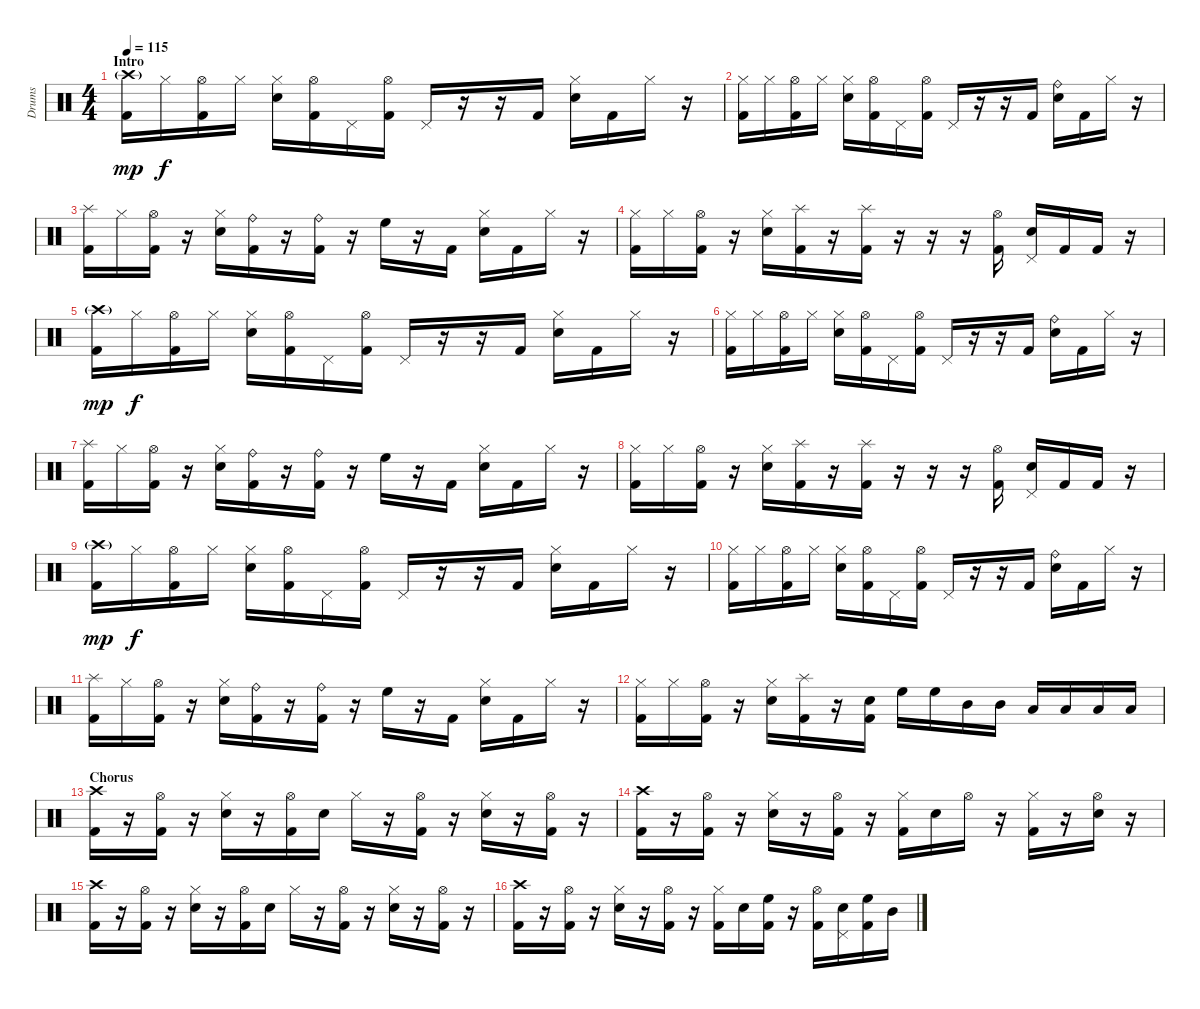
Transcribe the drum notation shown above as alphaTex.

\track ("Drums" "Drums") {instrument percussion}
\staff {score}
\articulation defaults
\ts (4 4)
\section ("" "Intro")
\tempo 115
\clef neutral
\ks c
("Crash high (hit)"{g} "Kick (hit) 2").16{dy mp} "Hi-Hat (closed)".16{dy f} ("Hi-Hat (open)" "Kick (hit) 2").16 "Hi-Hat (closed)".16 ("Hi-Hat (closed)" "Electric Snare (hit)").16 ("Hi-Hat (open)" "Kick (hit) 2").16 "Pedal Hi-Hat (hit)".16 ("Hi-Hat (open)" "Kick (hit) 2").16 "Pedal Hi-Hat (hit)".16 r.16 r.16 "Kick (hit) 2".16 ("Hi-Hat (closed)" "Electric Snare (hit)").16 "Kick (hit) 2".16 "Hi-Hat (closed)".16 r.16 |
("Hi-Hat (closed)" "Kick (hit) 2").16 "Hi-Hat (closed)".16 ("Hi-Hat (open)" "Kick (hit) 2").16 "Hi-Hat (closed)".16 ("Hi-Hat (closed)" "Electric Snare (hit)").16 ("Hi-Hat (open)" "Kick (hit) 2").16 "Pedal Hi-Hat (hit)".16 ("Hi-Hat (open)" "Kick (hit) 2").16 "Pedal Hi-Hat (hit)".16 r.16 r.16 "Kick (hit) 2".16 ("Ride (bell)" "Electric Snare (hit)").16 "Kick (hit) 2".16 "Hi-Hat (closed)".16 r.16 |
("Splash (hit)" "Kick (hit) 2").16 "Hi-Hat (closed)".16 ("Hi-Hat (open)" "Kick (hit) 2").16 r.16 ("Hi-Hat (closed)" "Electric Snare (hit)").16 ("Ride (bell)" "Kick (hit) 2").16 r.16 ("Ride (bell)" "Kick (hit) 2").16 r.16 "High Floor Tom (hit)".16 r.16 "Kick (hit) 2".16 ("Hi-Hat (closed)" "Electric Snare (hit)").16 "Kick (hit) 2".16 "Hi-Hat (closed)".16 r.16 |
("Hi-Hat (closed)" "Kick (hit) 2").16 "Hi-Hat (closed)".16 ("Hi-Hat (open)" "Kick (hit) 2").16 r.16 ("Hi-Hat (closed)" "Electric Snare (hit)").16 ("Splash (hit)" "Kick (hit) 2").16 r.16 ("Splash (hit)" "Kick (hit) 2").16 r.16 r.16 r.16 ("Hi-Hat (open)" "Kick (hit) 2").16 ("Pedal Hi-Hat (hit)" "Electric Snare (hit)").16 "Kick (hit) 2".16 "Kick (hit) 2".16 r.16 |
("Crash high (hit)"{g} "Kick (hit) 2").16{dy mp} "Hi-Hat (closed)".16{dy f} ("Hi-Hat (open)" "Kick (hit) 2").16 "Hi-Hat (closed)".16 ("Hi-Hat (closed)" "Electric Snare (hit)").16 ("Hi-Hat (open)" "Kick (hit) 2").16 "Pedal Hi-Hat (hit)".16 ("Hi-Hat (open)" "Kick (hit) 2").16 "Pedal Hi-Hat (hit)".16 r.16 r.16 "Kick (hit) 2".16 ("Hi-Hat (closed)" "Electric Snare (hit)").16 "Kick (hit) 2".16 "Hi-Hat (closed)".16 r.16 |
("Hi-Hat (closed)" "Kick (hit) 2").16 "Hi-Hat (closed)".16 ("Hi-Hat (open)" "Kick (hit) 2").16 "Hi-Hat (closed)".16 ("Hi-Hat (closed)" "Electric Snare (hit)").16 ("Hi-Hat (open)" "Kick (hit) 2").16 "Pedal Hi-Hat (hit)".16 ("Hi-Hat (open)" "Kick (hit) 2").16 "Pedal Hi-Hat (hit)".16 r.16 r.16 "Kick (hit) 2".16 ("Ride (bell)" "Electric Snare (hit)").16 "Kick (hit) 2".16 "Hi-Hat (closed)".16 r.16 |
("Splash (hit)" "Kick (hit) 2").16 "Hi-Hat (closed)".16 ("Hi-Hat (open)" "Kick (hit) 2").16 r.16 ("Hi-Hat (closed)" "Electric Snare (hit)").16 ("Ride (bell)" "Kick (hit) 2").16 r.16 ("Ride (bell)" "Kick (hit) 2").16 r.16 "High Floor Tom (hit)".16 r.16 "Kick (hit) 2".16 ("Hi-Hat (closed)" "Electric Snare (hit)").16 "Kick (hit) 2".16 "Hi-Hat (closed)".16 r.16 |
("Hi-Hat (closed)" "Kick (hit) 2").16 "Hi-Hat (closed)".16 ("Hi-Hat (open)" "Kick (hit) 2").16 r.16 ("Hi-Hat (closed)" "Electric Snare (hit)").16 ("Splash (hit)" "Kick (hit) 2").16 r.16 ("Splash (hit)" "Kick (hit) 2").16 r.16 r.16 r.16 ("Hi-Hat (open)" "Kick (hit) 2").16 ("Pedal Hi-Hat (hit)" "Electric Snare (hit)").16 "Kick (hit) 2".16 "Kick (hit) 2".16 r.16 |
("Crash high (hit)"{g} "Kick (hit) 2").16{dy mp} "Hi-Hat (closed)".16{dy f} ("Hi-Hat (open)" "Kick (hit) 2").16 "Hi-Hat (closed)".16 ("Hi-Hat (closed)" "Electric Snare (hit)").16 ("Hi-Hat (open)" "Kick (hit) 2").16 "Pedal Hi-Hat (hit)".16 ("Hi-Hat (open)" "Kick (hit) 2").16 "Pedal Hi-Hat (hit)".16 r.16 r.16 "Kick (hit) 2".16 ("Hi-Hat (closed)" "Electric Snare (hit)").16 "Kick (hit) 2".16 "Hi-Hat (closed)".16 r.16 |
("Hi-Hat (closed)" "Kick (hit) 2").16 "Hi-Hat (closed)".16 ("Hi-Hat (open)" "Kick (hit) 2").16 "Hi-Hat (closed)".16 ("Hi-Hat (closed)" "Electric Snare (hit)").16 ("Hi-Hat (open)" "Kick (hit) 2").16 "Pedal Hi-Hat (hit)".16 ("Hi-Hat (open)" "Kick (hit) 2").16 "Pedal Hi-Hat (hit)".16 r.16 r.16 "Kick (hit) 2".16 ("Ride (bell)" "Electric Snare (hit)").16 "Kick (hit) 2".16 "Hi-Hat (closed)".16 r.16 |
("Splash (hit)" "Kick (hit) 2").16 "Hi-Hat (closed)".16 ("Hi-Hat (open)" "Kick (hit) 2").16 r.16 ("Hi-Hat (closed)" "Electric Snare (hit)").16 ("Ride (bell)" "Kick (hit) 2").16 r.16 ("Ride (bell)" "Kick (hit) 2").16 r.16 "High Floor Tom (hit)".16 r.16 "Kick (hit) 2".16 ("Hi-Hat (closed)" "Electric Snare (hit)").16 "Kick (hit) 2".16 "Hi-Hat (closed)".16 r.16 |
("Hi-Hat (closed)" "Kick (hit) 2").16 "Hi-Hat (closed)".16 ("Hi-Hat (open)" "Kick (hit) 2").16 r.16 ("Hi-Hat (closed)" "Electric Snare (hit)").16 ("Splash (hit)" "Kick (hit) 2").16 r.16 ("Electric Snare (hit)" "Kick (hit) 2").16 "High Floor Tom (hit)".16 "High Floor Tom (hit)".16 "Mid Tom (hit)".16 "Mid Tom (hit)".16 "Low Tom (hit)".16 "Low Tom (hit)".16 "Low Floor Tom (hit)".16 "Low Floor Tom (hit)".16 |
\section ("" "Chorus")
("Crash high (hit)" "Kick (hit) 2").16 r.16 ("Hi-Hat (open)" "Kick (hit) 2").16 r.16 ("Hi-Hat (closed)" "Electric Snare (hit)").16 r.16 ("Hi-Hat (open)" "Kick (hit) 2").16 "Electric Snare (hit)".16 "Hi-Hat (closed)".16 r.16 ("Hi-Hat (open)" "Kick (hit) 2").16 r.16 ("Hi-Hat (closed)" "Electric Snare (hit)").16 r.16 ("Hi-Hat (open)" "Kick (hit) 2").16 r.16 |
("Crash high (hit)" "Kick (hit) 2").16 r.16 ("Hi-Hat (open)" "Kick (hit) 2").16 r.16 ("Hi-Hat (closed)" "Electric Snare (hit)").16 r.16 ("Hi-Hat (open)" "Kick (hit) 2").16 r.16 ("Hi-Hat (closed)" "Kick (hit) 2").16 "Electric Snare (hit)".16 "Hi-Hat (open)".16 r.16 ("Hi-Hat (closed)" "Kick (hit) 2").16 r.16 ("Hi-Hat (open)" "Electric Snare (hit)").16 r.16 |
("Crash high (hit)" "Kick (hit) 2").16 r.16 ("Hi-Hat (open)" "Kick (hit) 2").16 r.16 ("Hi-Hat (closed)" "Electric Snare (hit)").16 r.16 ("Hi-Hat (open)" "Kick (hit) 2").16 "Electric Snare (hit)".16 "Hi-Hat (closed)".16 r.16 ("Hi-Hat (open)" "Kick (hit) 2").16 r.16 ("Hi-Hat (closed)" "Electric Snare (hit)").16 r.16 ("Hi-Hat (open)" "Kick (hit) 2").16 r.16 |
("Crash high (hit)" "Kick (hit) 2").16 r.16 ("Hi-Hat (open)" "Kick (hit) 2").16 r.16 ("Hi-Hat (closed)" "Electric Snare (hit)").16 r.16 ("Hi-Hat (open)" "Kick (hit) 2").16 r.16 ("Hi-Hat (closed)" "Kick (hit) 2").16 "Electric Snare (hit)".16 ("High Floor Tom (hit)" "Kick (hit) 2").16 r.16 ("Hi-Hat (open)" "Kick (hit) 2").16 ("Pedal Hi-Hat (hit)" "Electric Snare (hit)").16 ("High Floor Tom (hit)" "Kick (hit) 2").16 "Mid Tom (hit)".16
